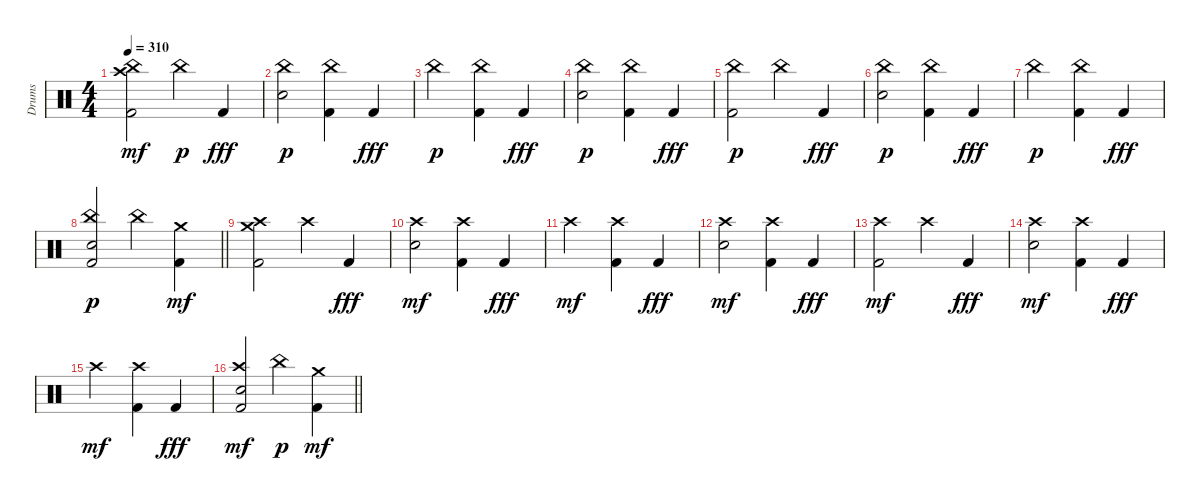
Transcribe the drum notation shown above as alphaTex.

\track ("Drums" "Drums") {solo instrument percussion}
\staff {score}
\articulation defaults
\ts (4 4)
\tempo 310
\clef neutral
\ks c
("Kick (hit) 2" "China (hit)" "Crash high (hit)").2{dy mf} "China (hit)".4{dy p} "Kick (hit) 2".4{dy fff} |
("Electric Snare (hit)" "China (hit)").2{dy p} ("Kick (hit) 2" "China (hit)").4 "Kick (hit) 2".4{dy fff} |
"China (hit)".2{dy p} ("Kick (hit) 2" "China (hit)").4 "Kick (hit) 2".4{dy fff} |
("Electric Snare (hit)" "China (hit)").2{dy p} ("Kick (hit) 2" "China (hit)").4 "Kick (hit) 2".4{dy fff} |
("Kick (hit) 2" "China (hit)").2{dy p} "China (hit)".4 "Kick (hit) 2".4{dy fff} |
("Electric Snare (hit)" "China (hit)").2{dy p} ("Kick (hit) 2" "China (hit)").4 "Kick (hit) 2".4{dy fff} |
"China (hit)".2{dy p} ("Kick (hit) 2" "China (hit)").4 "Kick (hit) 2".4{dy fff} |
\barLineRight lightlight
("Kick (hit) 2" "Electric Snare (hit)" "China (hit)").2{dy p} "China (hit)".4 ("Kick (hit) 2" "Crash medium (hit)").4{dy mf} |
("Kick (hit) 2" "Crash high (hit)" "Crash medium (hit)").2 "Crash high (hit)".4 "Kick (hit) 2".4{dy fff} |
("Electric Snare (hit)" "Crash high (hit)").2{dy mf} ("Kick (hit) 2" "Crash high (hit)").4 "Kick (hit) 2".4{dy fff} |
"Crash high (hit)".2{dy mf} ("Kick (hit) 2" "Crash high (hit)").4 "Kick (hit) 2".4{dy fff} |
("Electric Snare (hit)" "Crash high (hit)").2{dy mf} ("Kick (hit) 2" "Crash high (hit)").4 "Kick (hit) 2".4{dy fff} |
("Kick (hit) 2" "Crash high (hit)").2{dy mf} "Crash high (hit)".4 "Kick (hit) 2".4{dy fff} |
("Electric Snare (hit)" "Crash high (hit)").2{dy mf} ("Kick (hit) 2" "Crash high (hit)").4 "Kick (hit) 2".4{dy fff} |
"Crash high (hit)".2{dy mf} ("Kick (hit) 2" "Crash high (hit)").4 "Kick (hit) 2".4{dy fff} |
\barLineRight lightlight
("Kick (hit) 2" "Electric Snare (hit)" "Crash high (hit)").2{dy mf} "China (hit)".4{dy p} ("Kick (hit) 2" "Crash medium (hit)").4{dy mf}
